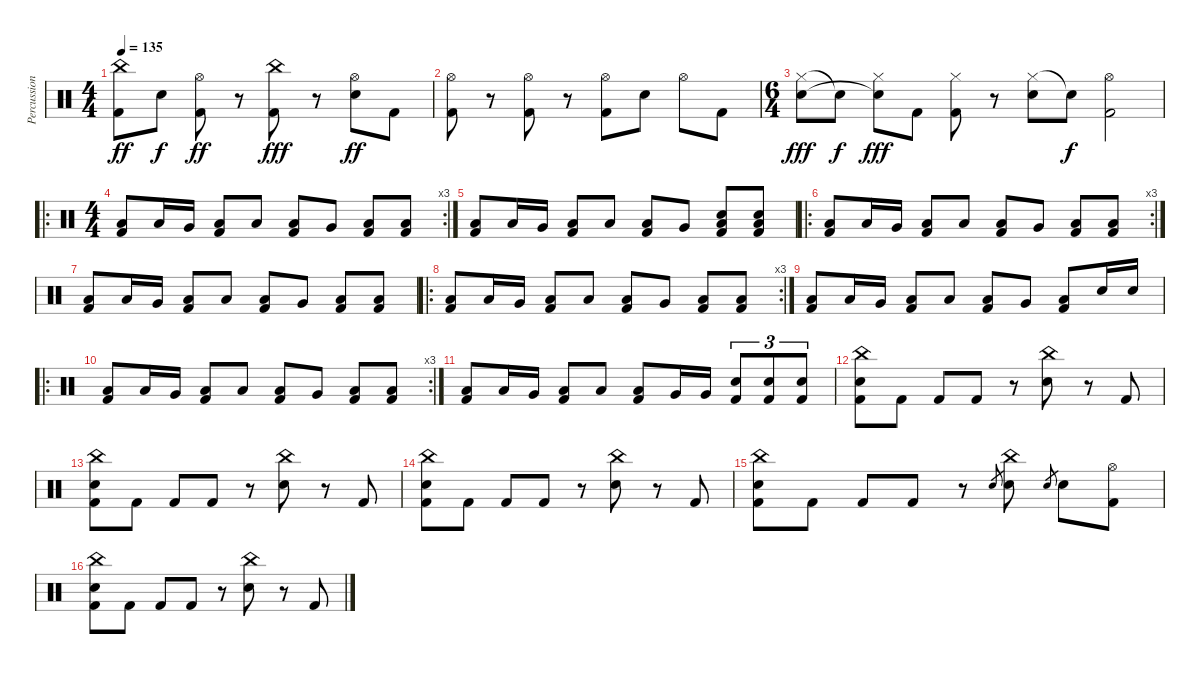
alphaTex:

\track ("Percussion" "Percussion") {instrument percussion}
\staff {score}
\articulation defaults
\ts (4 4)
\tempo 135
\clef neutral
\ks c
("China (hit)" "Kick (hit) 2").8{dy ff} "Electric Snare (hit)".8{dy f} ("Hi-Hat (open)" "Kick (hit) 2").8{dy ff} r.8 ("China (hit)" "Kick (hit) 2").8{dy fff} r.8 ("Hi-Hat (open)" "Electric Snare (hit)").8{dy ff} "Kick (hit) 2".8 |
("Hi-Hat (open)" "Kick (hit) 2").8 r.8 ("Hi-Hat (open)" "Kick (hit) 2").8 r.8 ("Hi-Hat (open)" "Kick (hit) 2").8 "Electric Snare (hit)".8 "Hi-Hat (open)".8 "Kick (hit) 2".8 |
\ts (6 4)
("Hi-Hat (closed)" "Electric Snare (hit)").8{dy fff} "Snare (hit)"{t}.8{dy f} ("Hi-Hat (closed)" "Snare (hit)"{t}).8{dy fff} "Kick (hit) 2".8 ("Hi-Hat (closed)" "Kick (hit) 2").8 r.8 ("Hi-Hat (closed)" "Electric Snare (hit)").8 "Snare (hit)"{t}.8{dy f} ("Hi-Hat (open)" "Kick (hit) 2").2 |
\ro
\rc 3
\ts (4 4)
("Low Floor Tom (hit)" "Kick (hit) 2").8 "Low Tom (hit)".16 "Very Low Tom (hit)".16 ("Low Floor Tom (hit)" "Kick (hit) 2").8 "Low Floor Tom (hit)".8 ("Low Floor Tom (hit)" "Kick (hit) 2").8 "Very Low Tom (hit)".8 ("Low Floor Tom (hit)" "Kick (hit) 2").8 ("Low Floor Tom (hit)" "Kick (hit) 2").8 |
("Low Floor Tom (hit)" "Kick (hit) 2").8 "Low Tom (hit)".16 "Very Low Tom (hit)".16 ("Low Floor Tom (hit)" "Kick (hit) 2").8 "Low Floor Tom (hit)".8 ("Low Floor Tom (hit)" "Kick (hit) 2").8 "Very Low Tom (hit)".8 ("Low Floor Tom (hit)" "Electric Snare (hit)" "Kick (hit) 2").8 ("Low Floor Tom (hit)" "Electric Snare (hit)" "Kick (hit) 2").8 |
\ro
\rc 3
("Low Floor Tom (hit)" "Kick (hit) 2").8 "Low Tom (hit)".16 "Very Low Tom (hit)".16 ("Low Floor Tom (hit)" "Kick (hit) 2").8 "Low Floor Tom (hit)".8 ("Low Floor Tom (hit)" "Kick (hit) 2").8 "Very Low Tom (hit)".8 ("Low Floor Tom (hit)" "Kick (hit) 2").8 ("Low Floor Tom (hit)" "Kick (hit) 2").8 |
("Low Floor Tom (hit)" "Kick (hit) 2").8 "Low Tom (hit)".16 "Very Low Tom (hit)".16 ("Low Floor Tom (hit)" "Kick (hit) 2").8 "Low Floor Tom (hit)".8 ("Low Floor Tom (hit)" "Kick (hit) 2").8 "Very Low Tom (hit)".8 ("Low Floor Tom (hit)" "Kick (hit) 2").8 ("Low Floor Tom (hit)" "Kick (hit) 2").8 |
\ro
\rc 3
("Low Floor Tom (hit)" "Kick (hit) 2").8 "Low Tom (hit)".16 "Very Low Tom (hit)".16 ("Low Floor Tom (hit)" "Kick (hit) 2").8 "Low Floor Tom (hit)".8 ("Low Floor Tom (hit)" "Kick (hit) 2").8 "Very Low Tom (hit)".8 ("Low Floor Tom (hit)" "Kick (hit) 2").8 ("Low Floor Tom (hit)" "Kick (hit) 2").8 |
("Low Floor Tom (hit)" "Kick (hit) 2").8 "Low Tom (hit)".16 "Very Low Tom (hit)".16 ("Low Floor Tom (hit)" "Kick (hit) 2").8 "Low Floor Tom (hit)".8 ("Low Floor Tom (hit)" "Kick (hit) 2").8 "Very Low Tom (hit)".8 ("Low Floor Tom (hit)" "Kick (hit) 2").8 "Electric Snare (hit)".16 "Electric Snare (hit)".16 |
\ro
\rc 3
("Low Floor Tom (hit)" "Kick (hit) 2").8 "Low Tom (hit)".16 "Very Low Tom (hit)".16 ("Low Floor Tom (hit)" "Kick (hit) 2").8 "Low Floor Tom (hit)".8 ("Low Floor Tom (hit)" "Kick (hit) 2").8 "Very Low Tom (hit)".8 ("Low Floor Tom (hit)" "Kick (hit) 2").8 ("Low Floor Tom (hit)" "Kick (hit) 2").8 |
("Low Floor Tom (hit)" "Kick (hit) 2").8 "Low Tom (hit)".16 "Very Low Tom (hit)".16 ("Low Floor Tom (hit)" "Kick (hit) 2").8 "Low Floor Tom (hit)".8 ("Low Floor Tom (hit)" "Kick (hit) 2").8 "Very Low Tom (hit)".16 "Very Low Tom (hit)".16 ("Electric Snare (hit)" "Kick (hit) 2").8{tu (3 2)} ("Electric Snare (hit)" "Kick (hit) 2").8{tu (3 2)} ("Electric Snare (hit)" "Kick (hit) 2").8{tu (3 2)} |
("Electric Snare (hit)" "China (hit)" "Kick (hit) 2").8 "Kick (hit) 2".8 "Kick (hit) 2".8 "Kick (hit) 2".8 r.8 ("China (hit)" "Electric Snare (hit)").8 r.8 "Kick (hit) 2".8 |
("Electric Snare (hit)" "China (hit)" "Kick (hit) 2").8 "Kick (hit) 2".8 "Kick (hit) 2".8 "Kick (hit) 2".8 r.8 ("China (hit)" "Electric Snare (hit)").8 r.8 "Kick (hit) 2".8 |
("Electric Snare (hit)" "China (hit)" "Kick (hit) 2").8 "Kick (hit) 2".8 "Kick (hit) 2".8 "Kick (hit) 2".8 r.8 ("China (hit)" "Electric Snare (hit)").8 r.8 "Kick (hit) 2".8 |
("Electric Snare (hit)" "China (hit)" "Kick (hit) 2").8 "Kick (hit) 2".8 "Kick (hit) 2".8 "Kick (hit) 2".8 r.8 "Electric Snare (hit)".8{gr} ("China (hit)" "Electric Snare (hit)").8 "Electric Snare (hit)".8{gr} "Electric Snare (hit)".8 ("Hi-Hat (open)" "Kick (hit) 2").8 |
("Electric Snare (hit)" "China (hit)" "Kick (hit) 2").8 "Kick (hit) 2".8 "Kick (hit) 2".8 "Kick (hit) 2".8 r.8 ("China (hit)" "Electric Snare (hit)").8 r.8 "Kick (hit) 2".8
